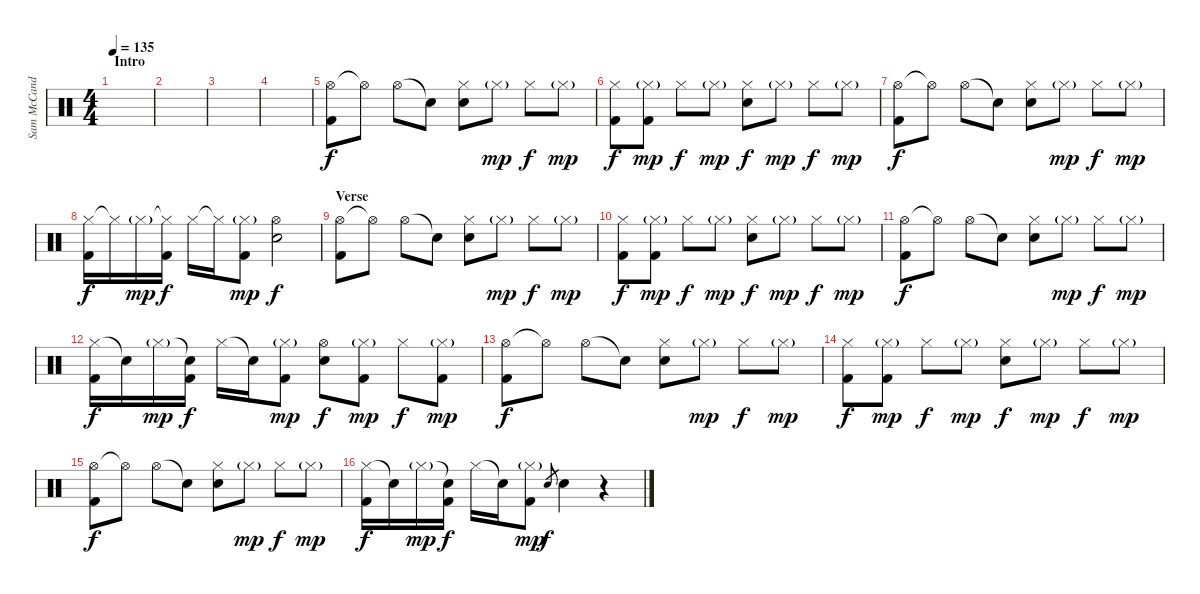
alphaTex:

\track ("Sam McCandless (Drums)" "Sam McCand") {instrument percussion}
\staff {score}
\articulation defaults
\ts (4 4)
\section ("" "Intro")
\tempo 135
\clef neutral
\ks c
|
|
|
|
("Hi-Hat (open)" "Kick (hit) 2").8 "Hi-Hat (open)"{t}.8 "Hi-Hat (open)".8 "Snare (hit)"{t}.8 ("Hi-Hat (closed)" "Electric Snare (hit)").8 "Hi-Hat (closed)"{g}.8{dy mp} "Hi-Hat (closed)".8{dy f} "Hi-Hat (closed)"{g}.8{dy mp} |
("Hi-Hat (closed)" "Kick (hit) 2").8{dy f} ("Hi-Hat (closed)"{g} "Kick (hit) 2").8{dy mp} "Hi-Hat (closed)".8{dy f} "Hi-Hat (closed)"{g}.8{dy mp} ("Hi-Hat (closed)" "Electric Snare (hit)").8{dy f} "Hi-Hat (closed)"{g}.8{dy mp} "Hi-Hat (closed)".8{dy f} "Hi-Hat (closed)"{g}.8{dy mp} |
("Hi-Hat (open)" "Kick (hit) 2").8{dy f} "Hi-Hat (open)"{t}.8 "Hi-Hat (open)".8 "Snare (hit)"{t}.8 ("Hi-Hat (closed)" "Electric Snare (hit)").8 "Hi-Hat (closed)"{g}.8{dy mp} "Hi-Hat (closed)".8{dy f} "Hi-Hat (closed)"{g}.8{dy mp} |
("Hi-Hat (closed)" "Kick (hit) 2").16{dy f} "Hi-Hat (closed)"{t}.16 "Hi-Hat (closed)"{g}.16{dy mp} ("Hi-Hat (closed)"{t} "Kick (hit) 2").16{dy f} "Hi-Hat (closed)".16 "Hi-Hat (closed)"{t}.16 ("Hi-Hat (closed)"{g} "Kick (hit) 2").8{dy mp} ("Hi-Hat (open)" "Electric Snare (hit)").2{dy f} |
\section ("" "Verse")
("Hi-Hat (open)" "Kick (hit) 2").8 "Hi-Hat (open)"{t}.8 "Hi-Hat (open)".8 "Snare (hit)"{t}.8 ("Hi-Hat (closed)" "Electric Snare (hit)").8 "Hi-Hat (closed)"{g}.8{dy mp} "Hi-Hat (closed)".8{dy f} "Hi-Hat (closed)"{g}.8{dy mp} |
("Hi-Hat (closed)" "Kick (hit) 2").8{dy f} ("Hi-Hat (closed)"{g} "Kick (hit) 2").8{dy mp} "Hi-Hat (closed)".8{dy f} "Hi-Hat (closed)"{g}.8{dy mp} ("Hi-Hat (closed)" "Electric Snare (hit)").8{dy f} "Hi-Hat (closed)"{g}.8{dy mp} "Hi-Hat (closed)".8{dy f} "Hi-Hat (closed)"{g}.8{dy mp} |
("Hi-Hat (open)" "Kick (hit) 2").8{dy f} "Hi-Hat (open)"{t}.8 "Hi-Hat (open)".8 "Snare (hit)"{t}.8 ("Hi-Hat (closed)" "Electric Snare (hit)").8 "Hi-Hat (closed)"{g}.8{dy mp} "Hi-Hat (closed)".8{dy f} "Hi-Hat (closed)"{g}.8{dy mp} |
("Hi-Hat (closed)" "Kick (hit) 2").16{dy f} "Snare (hit)"{t}.16 "Hi-Hat (closed)"{g}.16{dy mp} ("Snare (hit)"{t} "Kick (hit) 2").16{dy f} "Hi-Hat (closed)".16 "Snare (hit)"{t}.16 ("Hi-Hat (closed)"{g} "Kick (hit) 2").8{dy mp} ("Hi-Hat (open)" "Electric Snare (hit)").8{dy f} ("Hi-Hat (closed)"{g} "Kick (hit) 2").8{dy mp} "Hi-Hat (closed)".8{dy f} ("Hi-Hat (closed)"{g} "Kick (hit) 2").8{dy mp} |
("Hi-Hat (open)" "Kick (hit) 2").8{dy f} "Hi-Hat (open)"{t}.8 "Hi-Hat (open)".8 "Snare (hit)"{t}.8 ("Hi-Hat (closed)" "Electric Snare (hit)").8 "Hi-Hat (closed)"{g}.8{dy mp} "Hi-Hat (closed)".8{dy f} "Hi-Hat (closed)"{g}.8{dy mp} |
("Hi-Hat (closed)" "Kick (hit) 2").8{dy f} ("Hi-Hat (closed)"{g} "Kick (hit) 2").8{dy mp} "Hi-Hat (closed)".8{dy f} "Hi-Hat (closed)"{g}.8{dy mp} ("Hi-Hat (closed)" "Electric Snare (hit)").8{dy f} "Hi-Hat (closed)"{g}.8{dy mp} "Hi-Hat (closed)".8{dy f} "Hi-Hat (closed)"{g}.8{dy mp} |
("Hi-Hat (open)" "Kick (hit) 2").8{dy f} "Hi-Hat (open)"{t}.8 "Hi-Hat (open)".8 "Snare (hit)"{t}.8 ("Hi-Hat (closed)" "Electric Snare (hit)").8 "Hi-Hat (closed)"{g}.8{dy mp} "Hi-Hat (closed)".8{dy f} "Hi-Hat (closed)"{g}.8{dy mp} |
("Hi-Hat (closed)" "Kick (hit) 2").16{dy f} "Snare (hit)"{t}.16 "Hi-Hat (closed)"{g}.16{dy mp} ("Snare (hit)"{t} "Kick (hit) 2").16{dy f} "Hi-Hat (closed)".16 "Snare (hit)"{t}.16 ("Hi-Hat (closed)"{g} "Kick (hit) 2").8{dy mp} "Electric Snare (hit)".8{gr dy f} "Electric Snare (hit)".4 r.4
